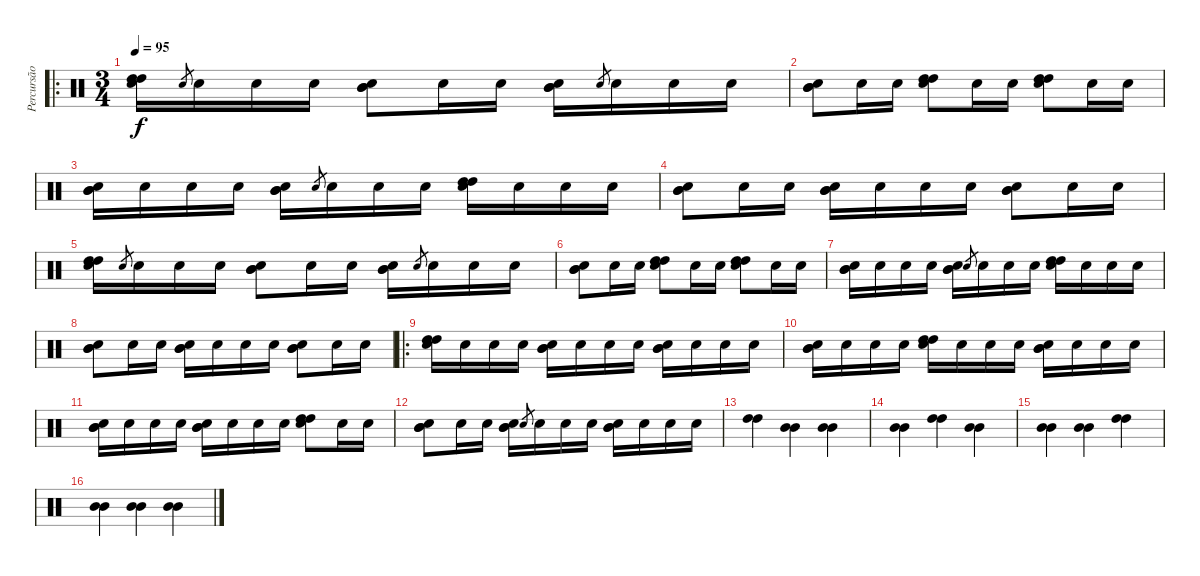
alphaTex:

\track ("Percursão" "Percursão") {instrument percussion}
\staff {score}
\articulation defaults
\ro
\ts (3 4)
\tempo 95
\clef neutral
\ks c
("Electric Snare (hit)" "High Tom (hit)" "High Tom (hit)").16{dy f} "Electric Snare (hit)".8{gr} "Electric Snare (hit)".16 "Electric Snare (hit)".16 "Electric Snare (hit)".16 ("Electric Snare (hit)" "Mid Tom (hit)" "Mid Tom (hit)").8 "Electric Snare (hit)".16 "Electric Snare (hit)".16 ("Electric Snare (hit)" "Mid Tom (hit)" "Mid Tom (hit)").16 "Electric Snare (hit)".8{gr} "Electric Snare (hit)".16 "Electric Snare (hit)".16 "Electric Snare (hit)".16 |
("Electric Snare (hit)" "Mid Tom (hit)" "Mid Tom (hit)").8 "Electric Snare (hit)".16 "Electric Snare (hit)".16 ("Electric Snare (hit)" "High Tom (hit)" "High Tom (hit)").8 "Electric Snare (hit)".16 "Electric Snare (hit)".16 ("Electric Snare (hit)" "High Tom (hit)" "High Tom (hit)").8 "Electric Snare (hit)".16 "Electric Snare (hit)".16 |
("Electric Snare (hit)" "Mid Tom (hit)" "Mid Tom (hit)").16 "Electric Snare (hit)".16 "Electric Snare (hit)".16 "Electric Snare (hit)".16 ("Electric Snare (hit)" "Mid Tom (hit)" "Mid Tom (hit)").16 "Electric Snare (hit)".8{gr} "Electric Snare (hit)".16 "Electric Snare (hit)".16 "Electric Snare (hit)".16 ("Electric Snare (hit)" "High Tom (hit)" "High Tom (hit)").16 "Electric Snare (hit)".16 "Electric Snare (hit)".16 "Electric Snare (hit)".16 |
("Electric Snare (hit)" "Mid Tom (hit)" "Mid Tom (hit)").8 "Electric Snare (hit)".16 "Electric Snare (hit)".16 ("Electric Snare (hit)" "Mid Tom (hit)" "Mid Tom (hit)").16 "Electric Snare (hit)".16 "Electric Snare (hit)".16 "Electric Snare (hit)".16 ("Electric Snare (hit)" "Mid Tom (hit)" "Mid Tom (hit)").8 "Electric Snare (hit)".16 "Electric Snare (hit)".16 |
("Electric Snare (hit)" "High Tom (hit)" "High Tom (hit)").16 "Electric Snare (hit)".8{gr} "Electric Snare (hit)".16 "Electric Snare (hit)".16 "Electric Snare (hit)".16 ("Electric Snare (hit)" "Mid Tom (hit)" "Mid Tom (hit)").8 "Electric Snare (hit)".16 "Electric Snare (hit)".16 ("Electric Snare (hit)" "Mid Tom (hit)" "Mid Tom (hit)").16 "Electric Snare (hit)".8{gr} "Electric Snare (hit)".16 "Electric Snare (hit)".16 "Electric Snare (hit)".16 |
("Electric Snare (hit)" "Mid Tom (hit)" "Mid Tom (hit)").8 "Electric Snare (hit)".16 "Electric Snare (hit)".16 ("Electric Snare (hit)" "High Tom (hit)" "High Tom (hit)").8 "Electric Snare (hit)".16 "Electric Snare (hit)".16 ("Electric Snare (hit)" "High Tom (hit)" "High Tom (hit)").8 "Electric Snare (hit)".16 "Electric Snare (hit)".16 |
("Electric Snare (hit)" "Mid Tom (hit)" "Mid Tom (hit)").16 "Electric Snare (hit)".16 "Electric Snare (hit)".16 "Electric Snare (hit)".16 ("Electric Snare (hit)" "Mid Tom (hit)" "Mid Tom (hit)").16 "Electric Snare (hit)".8{gr} "Electric Snare (hit)".16 "Electric Snare (hit)".16 "Electric Snare (hit)".16 ("Electric Snare (hit)" "High Tom (hit)" "High Tom (hit)").16 "Electric Snare (hit)".16 "Electric Snare (hit)".16 "Electric Snare (hit)".16 |
("Electric Snare (hit)" "Mid Tom (hit)" "Mid Tom (hit)").8 "Electric Snare (hit)".16 "Electric Snare (hit)".16 ("Electric Snare (hit)" "Mid Tom (hit)" "Mid Tom (hit)").16 "Electric Snare (hit)".16 "Electric Snare (hit)".16 "Electric Snare (hit)".16 ("Electric Snare (hit)" "Mid Tom (hit)" "Mid Tom (hit)").8 "Electric Snare (hit)".16 "Electric Snare (hit)".16 |
\ro
("Electric Snare (hit)" "High Tom (hit)" "High Tom (hit)").16 "Electric Snare (hit)".16 "Electric Snare (hit)".16 "Electric Snare (hit)".16 ("Electric Snare (hit)" "Mid Tom (hit)" "Mid Tom (hit)").16 "Electric Snare (hit)".16 "Electric Snare (hit)".16 "Electric Snare (hit)".16 ("Electric Snare (hit)" "Mid Tom (hit)" "Mid Tom (hit)").16 "Electric Snare (hit)".16 "Electric Snare (hit)".16 "Electric Snare (hit)".16 |
("Electric Snare (hit)" "Mid Tom (hit)" "Mid Tom (hit)").16 "Electric Snare (hit)".16 "Electric Snare (hit)".16 "Electric Snare (hit)".16 ("Electric Snare (hit)" "High Tom (hit)" "High Tom (hit)").16 "Electric Snare (hit)".16 "Electric Snare (hit)".16 "Electric Snare (hit)".16 ("Electric Snare (hit)" "Mid Tom (hit)" "Mid Tom (hit)").16 "Electric Snare (hit)".16 "Electric Snare (hit)".16 "Electric Snare (hit)".16 |
("Electric Snare (hit)" "Mid Tom (hit)" "Mid Tom (hit)").16 "Electric Snare (hit)".16 "Electric Snare (hit)".16 "Electric Snare (hit)".16 ("Electric Snare (hit)" "Mid Tom (hit)" "Mid Tom (hit)").16 "Electric Snare (hit)".16 "Electric Snare (hit)".16 "Electric Snare (hit)".16 ("Electric Snare (hit)" "High Tom (hit)" "High Tom (hit)").8 "Electric Snare (hit)".16 "Electric Snare (hit)".16 |
("Electric Snare (hit)" "Mid Tom (hit)" "Mid Tom (hit)").8 "Electric Snare (hit)".16 "Electric Snare (hit)".16 ("Electric Snare (hit)" "Mid Tom (hit)" "Mid Tom (hit)").16 "Electric Snare (hit)".8{gr} "Electric Snare (hit)".16 "Electric Snare (hit)".16 "Electric Snare (hit)".16 ("Electric Snare (hit)" "Mid Tom (hit)" "Mid Tom (hit)").16 "Electric Snare (hit)".16 "Electric Snare (hit)".16 "Electric Snare (hit)".16 |
("High Tom (hit)" "High Tom (hit)").4 ("Mid Tom (hit)" "Mid Tom (hit)").4 ("Mid Tom (hit)" "Mid Tom (hit)").4 |
("Mid Tom (hit)" "Mid Tom (hit)").4 ("High Tom (hit)" "High Tom (hit)").4 ("Mid Tom (hit)" "Mid Tom (hit)").4 |
("Mid Tom (hit)" "Mid Tom (hit)").4 ("Mid Tom (hit)" "Mid Tom (hit)").4 ("High Tom (hit)" "High Tom (hit)").4 |
("Mid Tom (hit)" "Mid Tom (hit)").4 ("Mid Tom (hit)" "Mid Tom (hit)").4 ("Mid Tom (hit)" "Mid Tom (hit)").4
